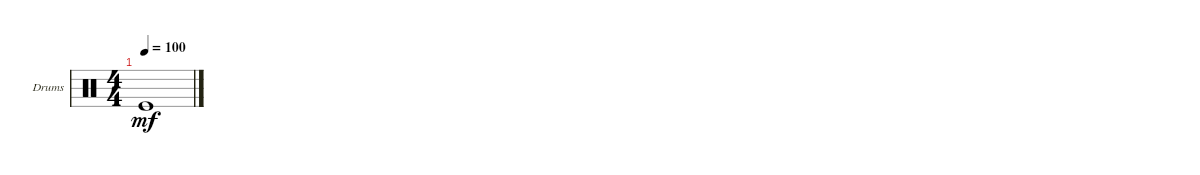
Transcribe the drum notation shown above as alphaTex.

\defaultSystemsLayout 4
\bracketExtendMode groupsimilarinstruments
\firstSystemTrackNameOrientation horizontal
\otherSystemsTrackNameOrientation horizontal
\track ("Drumkit" "Drums") {instrument percussion}
\staff {score}
\articulation defaults
\ts (4 4)
\tempo 100
\clef neutral
\ks c "Kick (hit)".1{dy mf}
